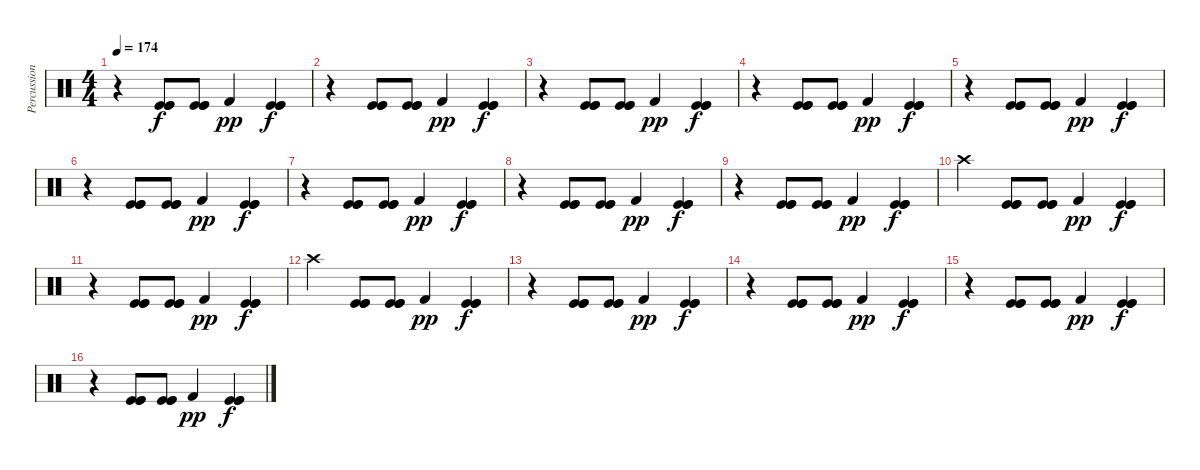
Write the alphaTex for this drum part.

\track ("Percussions" "Percussion") {instrument percussion}
\staff {score}
\articulation defaults
\ts (4 4)
\tempo 174
\clef neutral
\ks c
r.4{dy f} ("Kick (hit)" "Kick (hit)" "Kick (hit)").8 ("Kick (hit)" "Kick (hit)" "Kick (hit)").8 "Kick (hit) 2".4{dy pp} ("Kick (hit)" "Kick (hit)" "Kick (hit)").4{dy f} |
r.4 ("Kick (hit)" "Kick (hit)" "Kick (hit)").8 ("Kick (hit)" "Kick (hit)" "Kick (hit)").8 "Kick (hit) 2".4{dy pp} ("Kick (hit)" "Kick (hit)" "Kick (hit)").4{dy f} |
r.4 ("Kick (hit)" "Kick (hit)" "Kick (hit)").8 ("Kick (hit)" "Kick (hit)" "Kick (hit)").8 "Kick (hit) 2".4{dy pp} ("Kick (hit)" "Kick (hit)" "Kick (hit)").4{dy f} |
r.4 ("Kick (hit)" "Kick (hit)" "Kick (hit)").8 ("Kick (hit)" "Kick (hit)" "Kick (hit)").8 "Kick (hit) 2".4{dy pp} ("Kick (hit)" "Kick (hit)" "Kick (hit)").4{dy f} |
r.4 ("Kick (hit)" "Kick (hit)" "Kick (hit)").8 ("Kick (hit)" "Kick (hit)" "Kick (hit)").8 "Kick (hit) 2".4{dy pp} ("Kick (hit)" "Kick (hit)" "Kick (hit)").4{dy f} |
r.4 ("Kick (hit)" "Kick (hit)" "Kick (hit)").8 ("Kick (hit)" "Kick (hit)" "Kick (hit)").8 "Kick (hit) 2".4{dy pp} ("Kick (hit)" "Kick (hit)" "Kick (hit)").4{dy f} |
r.4 ("Kick (hit)" "Kick (hit)" "Kick (hit)").8 ("Kick (hit)" "Kick (hit)" "Kick (hit)").8 "Kick (hit) 2".4{dy pp} ("Kick (hit)" "Kick (hit)" "Kick (hit)").4{dy f} |
r.4 ("Kick (hit)" "Kick (hit)" "Kick (hit)").8 ("Kick (hit)" "Kick (hit)" "Kick (hit)").8 "Kick (hit) 2".4{dy pp} ("Kick (hit)" "Kick (hit)" "Kick (hit)").4{dy f} |
r.4 ("Kick (hit)" "Kick (hit)" "Kick (hit)").8 ("Kick (hit)" "Kick (hit)" "Kick (hit)").8 "Kick (hit) 2".4{dy pp} ("Kick (hit)" "Kick (hit)" "Kick (hit)").4{dy f} |
"Crash high (hit)".4 ("Kick (hit)" "Kick (hit)" "Kick (hit)").8 ("Kick (hit)" "Kick (hit)" "Kick (hit)").8 "Kick (hit) 2".4{dy pp} ("Kick (hit)" "Kick (hit)" "Kick (hit)").4{dy f} |
r.4 ("Kick (hit)" "Kick (hit)" "Kick (hit)").8 ("Kick (hit)" "Kick (hit)" "Kick (hit)").8 "Kick (hit) 2".4{dy pp} ("Kick (hit)" "Kick (hit)" "Kick (hit)").4{dy f} |
"Crash high (hit)".4 ("Kick (hit)" "Kick (hit)" "Kick (hit)").8 ("Kick (hit)" "Kick (hit)" "Kick (hit)").8 "Kick (hit) 2".4{dy pp} ("Kick (hit)" "Kick (hit)" "Kick (hit)").4{dy f} |
r.4 ("Kick (hit)" "Kick (hit)" "Kick (hit)").8 ("Kick (hit)" "Kick (hit)" "Kick (hit)").8 "Kick (hit) 2".4{dy pp} ("Kick (hit)" "Kick (hit)" "Kick (hit)").4{dy f} |
r.4 ("Kick (hit)" "Kick (hit)" "Kick (hit)").8 ("Kick (hit)" "Kick (hit)" "Kick (hit)").8 "Kick (hit) 2".4{dy pp} ("Kick (hit)" "Kick (hit)" "Kick (hit)").4{dy f} |
r.4 ("Kick (hit)" "Kick (hit)" "Kick (hit)").8 ("Kick (hit)" "Kick (hit)" "Kick (hit)").8 "Kick (hit) 2".4{dy pp} ("Kick (hit)" "Kick (hit)" "Kick (hit)").4{dy f} |
r.4 ("Kick (hit)" "Kick (hit)" "Kick (hit)").8 ("Kick (hit)" "Kick (hit)" "Kick (hit)").8 "Kick (hit) 2".4{dy pp} ("Kick (hit)" "Kick (hit)" "Kick (hit)").4{dy f}
